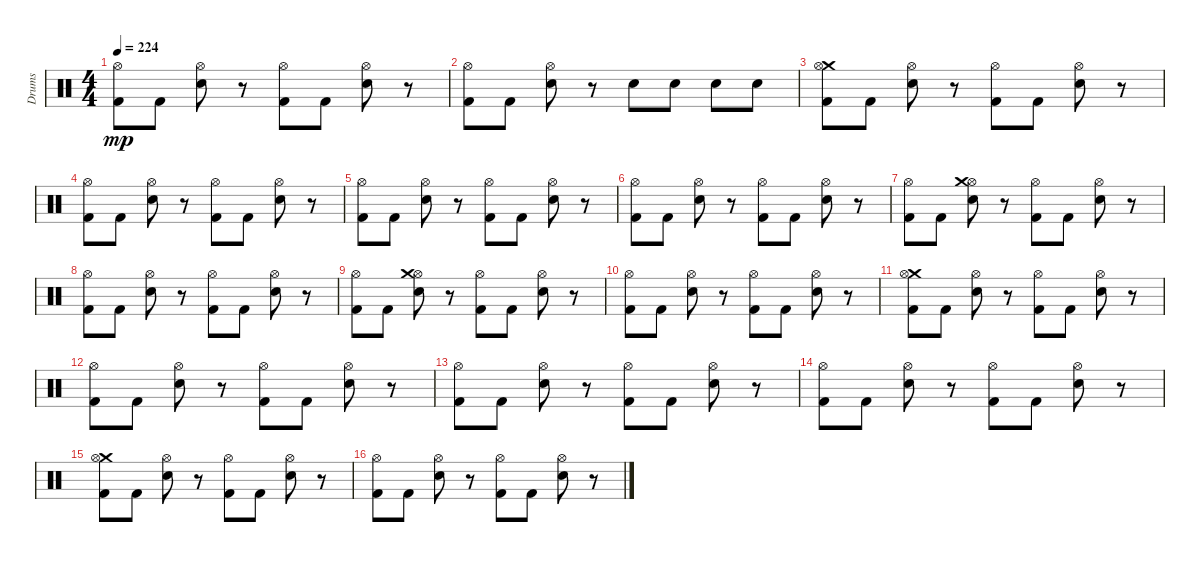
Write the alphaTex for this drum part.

\track ("Drums" "Drums") {instrument percussion}
\staff {score}
\articulation defaults
\ts (4 4)
\tempo 224
\clef neutral
\ks c
("Kick (hit) 2" "Hi-Hat (open)").8{dy mp} "Kick (hit) 2".8 ("Hi-Hat (open)" "Electric Snare (hit)").8 r.8 ("Kick (hit) 2" "Hi-Hat (open)").8 "Kick (hit) 2".8 ("Electric Snare (hit)" "Hi-Hat (open)").8 r.8 |
("Hi-Hat (open)" "Kick (hit) 2").8 "Kick (hit) 2".8 ("Electric Snare (hit)" "Hi-Hat (open)").8 r.8 "Electric Snare (hit)".8 "Electric Snare (hit)".8 "Electric Snare (hit)".8 "Electric Snare (hit)".8 |
("Crash medium (hit)" "Kick (hit) 2" "Hi-Hat (open)").8 "Kick (hit) 2".8 ("Electric Snare (hit)" "Hi-Hat (open)").8 r.8 ("Hi-Hat (open)" "Kick (hit) 2").8 "Kick (hit) 2".8 ("Hi-Hat (open)" "Electric Snare (hit)").8 r.8 |
("Kick (hit) 2" "Hi-Hat (open)").8 "Kick (hit) 2".8 ("Electric Snare (hit)" "Hi-Hat (open)").8 r.8 ("Kick (hit) 2" "Hi-Hat (open)").8 "Kick (hit) 2".8 ("Hi-Hat (open)" "Electric Snare (hit)").8 r.8 |
("Kick (hit) 2" "Hi-Hat (open)").8 "Kick (hit) 2".8 ("Hi-Hat (open)" "Electric Snare (hit)").8 r.8 ("Hi-Hat (open)" "Kick (hit) 2").8 "Kick (hit) 2".8 ("Electric Snare (hit)" "Hi-Hat (open)").8 r.8 |
("Kick (hit) 2" "Hi-Hat (open)").8 "Kick (hit) 2".8 ("Electric Snare (hit)" "Hi-Hat (open)").8 r.8 ("Hi-Hat (open)" "Kick (hit) 2").8 "Kick (hit) 2".8 ("Electric Snare (hit)" "Hi-Hat (open)").8 r.8 |
("Hi-Hat (open)" "Kick (hit) 2").8 "Kick (hit) 2".8 ("Hi-Hat (open)" "Crash medium (hit)" "Electric Snare (hit)").8 r.8 ("Kick (hit) 2" "Hi-Hat (open)").8 "Kick (hit) 2".8 ("Electric Snare (hit)" "Hi-Hat (open)").8 r.8 |
("Kick (hit) 2" "Hi-Hat (open)").8 "Kick (hit) 2".8 ("Electric Snare (hit)" "Hi-Hat (open)").8 r.8 ("Hi-Hat (open)" "Kick (hit) 2").8 "Kick (hit) 2".8 ("Electric Snare (hit)" "Hi-Hat (open)").8 r.8 |
("Hi-Hat (open)" "Kick (hit) 2").8 "Kick (hit) 2".8 ("Electric Snare (hit)" "Hi-Hat (open)" "Crash medium (hit)").8 r.8 ("Kick (hit) 2" "Hi-Hat (open)").8 "Kick (hit) 2".8 ("Hi-Hat (open)" "Electric Snare (hit)").8 r.8 |
("Hi-Hat (open)" "Kick (hit) 2").8 "Kick (hit) 2".8 ("Electric Snare (hit)" "Hi-Hat (open)").8 r.8 ("Kick (hit) 2" "Hi-Hat (open)").8 "Kick (hit) 2".8 ("Hi-Hat (open)" "Electric Snare (hit)").8 r.8 |
("Kick (hit) 2" "Crash medium (hit)" "Hi-Hat (open)").8 "Kick (hit) 2".8 ("Hi-Hat (open)" "Electric Snare (hit)").8 r.8 ("Hi-Hat (open)" "Kick (hit) 2").8 "Kick (hit) 2".8 ("Electric Snare (hit)" "Hi-Hat (open)").8 r.8 |
("Hi-Hat (open)" "Kick (hit) 2").8 "Kick (hit) 2".8 ("Electric Snare (hit)" "Hi-Hat (open)").8 r.8 ("Kick (hit) 2" "Hi-Hat (open)").8 "Kick (hit) 2".8 ("Electric Snare (hit)" "Hi-Hat (open)").8 r.8 |
("Kick (hit) 2" "Hi-Hat (open)").8 "Kick (hit) 2".8 ("Hi-Hat (open)" "Electric Snare (hit)").8 r.8 ("Hi-Hat (open)" "Kick (hit) 2").8 "Kick (hit) 2".8 ("Electric Snare (hit)" "Hi-Hat (open)").8 r.8 |
("Kick (hit) 2" "Hi-Hat (open)").8 "Kick (hit) 2".8 ("Electric Snare (hit)" "Hi-Hat (open)").8 r.8 ("Hi-Hat (open)" "Kick (hit) 2").8 "Kick (hit) 2".8 ("Hi-Hat (open)" "Electric Snare (hit)").8 r.8 |
("Crash medium (hit)" "Hi-Hat (open)" "Kick (hit) 2").8 "Kick (hit) 2".8 ("Electric Snare (hit)" "Hi-Hat (open)").8 r.8 ("Hi-Hat (open)" "Kick (hit) 2").8 "Kick (hit) 2".8 ("Hi-Hat (open)" "Electric Snare (hit)").8 r.8 |
("Kick (hit) 2" "Hi-Hat (open)").8 "Kick (hit) 2".8 ("Hi-Hat (open)" "Electric Snare (hit)").8 r.8 ("Hi-Hat (open)" "Kick (hit) 2").8 "Kick (hit) 2".8 ("Electric Snare (hit)" "Hi-Hat (open)").8 r.8
